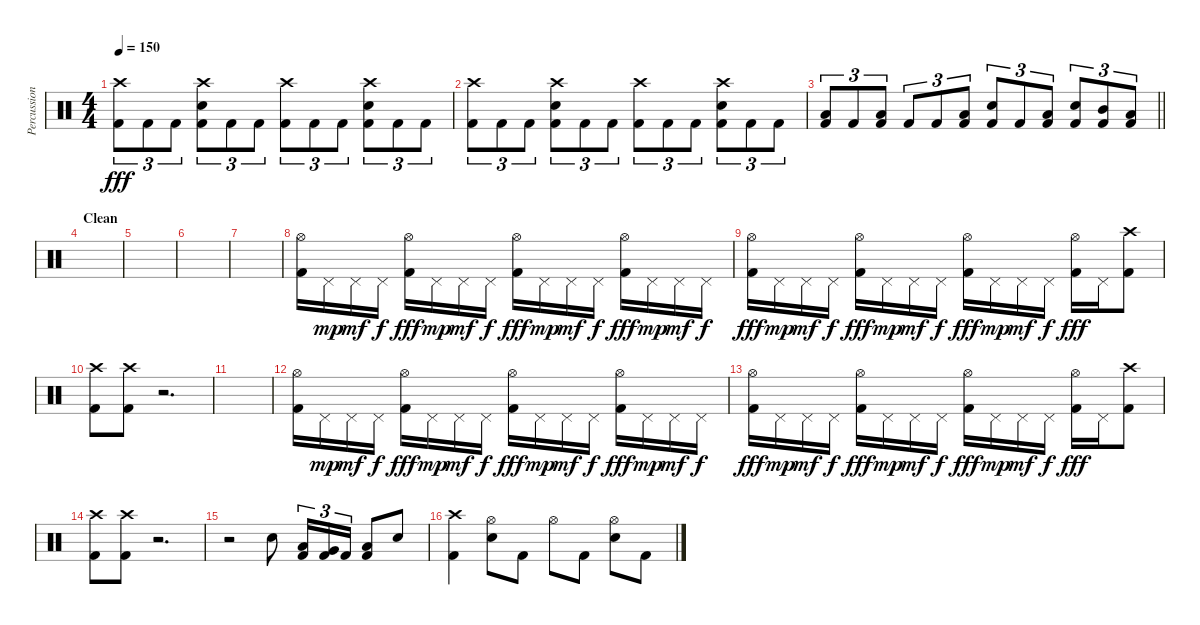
\track ("Percussion" "Percussion") {instrument percussion}
\staff {score}
\articulation defaults
\ts (4 4)
\tempo 150
\clef neutral
\ks c
("Crash high (hit)" "Kick (hit) 2").8{tu (3 2) dy fff} "Kick (hit) 2".8{tu (3 2)} "Kick (hit) 2".8{tu (3 2)} ("Crash high (hit)" "Snare (hit) 2" "Kick (hit) 2").8{tu (3 2)} "Kick (hit) 2".8{tu (3 2)} "Kick (hit) 2".8{tu (3 2)} ("Crash high (hit)" "Kick (hit) 2").8{tu (3 2)} "Kick (hit) 2".8{tu (3 2)} "Kick (hit) 2".8{tu (3 2)} ("Crash high (hit)" "Snare (hit) 2" "Kick (hit) 2").8{tu (3 2)} "Kick (hit) 2".8{tu (3 2)} "Kick (hit) 2".8{tu (3 2)} |
("Crash high (hit)" "Kick (hit) 2").8{tu (3 2)} "Kick (hit) 2".8{tu (3 2)} "Kick (hit) 2".8{tu (3 2)} ("Crash high (hit)" "Snare (hit) 2" "Kick (hit) 2").8{tu (3 2)} "Kick (hit) 2".8{tu (3 2)} "Kick (hit) 2".8{tu (3 2)} ("Crash high (hit)" "Kick (hit) 2").8{tu (3 2)} "Kick (hit) 2".8{tu (3 2)} "Kick (hit) 2".8{tu (3 2)} ("Crash high (hit)" "Snare (hit) 2" "Kick (hit) 2").8{tu (3 2)} "Kick (hit) 2".8{tu (3 2)} "Kick (hit) 2".8{tu (3 2)} |
\barLineRight lightlight
("Low Floor Tom (hit)" "Kick (hit) 2").8{tu (3 2)} "Kick (hit) 2".8{tu (3 2)} ("Low Floor Tom (hit)" "Kick (hit) 2").8{tu (3 2)} "Kick (hit) 2".8{tu (3 2)} "Kick (hit) 2".8{tu (3 2)} ("Low Floor Tom (hit)" "Kick (hit) 2").8{tu (3 2)} ("Snare (hit) 2" "Kick (hit) 2").8{tu (3 2)} "Kick (hit) 2".8{tu (3 2)} ("Low Floor Tom (hit)" "Kick (hit) 2").8{tu (3 2)} ("Snare (hit) 2" "Kick (hit) 2").8{tu (3 2)} ("Mid Tom (hit)" "Kick (hit) 2").8{tu (3 2)} ("Low Tom (hit)" "Kick (hit) 2").8{tu (3 2)} |
\section ("" "Clean")
|
|
|
|
("Hi-Hat (open)" "Kick (hit) 2").16 "Pedal Hi-Hat (hit)".16{dy mp} "Pedal Hi-Hat (hit)".16{dy mf} "Pedal Hi-Hat (hit)".16{dy f} ("Hi-Hat (open)" "Kick (hit) 2").16{dy fff} "Pedal Hi-Hat (hit)".16{dy mp} "Pedal Hi-Hat (hit)".16{dy mf} "Pedal Hi-Hat (hit)".16{dy f} ("Hi-Hat (open)" "Kick (hit) 2").16{dy fff} "Pedal Hi-Hat (hit)".16{dy mp} "Pedal Hi-Hat (hit)".16{dy mf} "Pedal Hi-Hat (hit)".16{dy f} ("Hi-Hat (open)" "Kick (hit) 2").16{dy fff} "Pedal Hi-Hat (hit)".16{dy mp} "Pedal Hi-Hat (hit)".16{dy mf} "Pedal Hi-Hat (hit)".16{dy f} |
("Hi-Hat (open)" "Kick (hit) 2").16{dy fff} "Pedal Hi-Hat (hit)".16{dy mp} "Pedal Hi-Hat (hit)".16{dy mf} "Pedal Hi-Hat (hit)".16{dy f} ("Hi-Hat (open)" "Kick (hit) 2").16{dy fff} "Pedal Hi-Hat (hit)".16{dy mp} "Pedal Hi-Hat (hit)".16{dy mf} "Pedal Hi-Hat (hit)".16{dy f} ("Hi-Hat (open)" "Kick (hit) 2").16{dy fff} "Pedal Hi-Hat (hit)".16{dy mp} "Pedal Hi-Hat (hit)".16{dy mf} "Pedal Hi-Hat (hit)".16{dy f} ("Hi-Hat (open)" "Kick (hit) 2").16{dy fff} "Pedal Hi-Hat (hit)".16 ("Crash high (hit)" "Kick (hit) 2").8 |
("Crash high (hit)" "Kick (hit) 2").8 ("Crash high (hit)" "Kick (hit) 2").8 r.2{d} |
|
("Hi-Hat (open)" "Kick (hit) 2").16 "Pedal Hi-Hat (hit)".16{dy mp} "Pedal Hi-Hat (hit)".16{dy mf} "Pedal Hi-Hat (hit)".16{dy f} ("Hi-Hat (open)" "Kick (hit) 2").16{dy fff} "Pedal Hi-Hat (hit)".16{dy mp} "Pedal Hi-Hat (hit)".16{dy mf} "Pedal Hi-Hat (hit)".16{dy f} ("Hi-Hat (open)" "Kick (hit) 2").16{dy fff} "Pedal Hi-Hat (hit)".16{dy mp} "Pedal Hi-Hat (hit)".16{dy mf} "Pedal Hi-Hat (hit)".16{dy f} ("Hi-Hat (open)" "Kick (hit) 2").16{dy fff} "Pedal Hi-Hat (hit)".16{dy mp} "Pedal Hi-Hat (hit)".16{dy mf} "Pedal Hi-Hat (hit)".16{dy f} |
("Hi-Hat (open)" "Kick (hit) 2").16{dy fff} "Pedal Hi-Hat (hit)".16{dy mp} "Pedal Hi-Hat (hit)".16{dy mf} "Pedal Hi-Hat (hit)".16{dy f} ("Hi-Hat (open)" "Kick (hit) 2").16{dy fff} "Pedal Hi-Hat (hit)".16{dy mp} "Pedal Hi-Hat (hit)".16{dy mf} "Pedal Hi-Hat (hit)".16{dy f} ("Hi-Hat (open)" "Kick (hit) 2").16{dy fff} "Pedal Hi-Hat (hit)".16{dy mp} "Pedal Hi-Hat (hit)".16{dy mf} "Pedal Hi-Hat (hit)".16{dy f} ("Hi-Hat (open)" "Kick (hit) 2").16{dy fff} "Pedal Hi-Hat (hit)".16 ("Crash high (hit)" "Kick (hit) 2").8 |
("Crash high (hit)" "Kick (hit) 2").8 ("Crash high (hit)" "Kick (hit) 2").8 r.2{d} |
r.2 "Snare (hit) 2".8 ("Low Tom (hit)" "Kick (hit) 2").16{tu (3 2)} ("Very Low Tom (hit)" "Kick (hit) 2").16{tu (3 2)} "Kick (hit) 2".16{tu (3 2)} ("Low Floor Tom (hit)" "Kick (hit) 2").8 "Snare (hit) 2".8 |
("Crash high (hit)" "Kick (hit) 2").4 ("Snare (hit) 2" "Hi-Hat (open)").8 "Kick (hit) 2".8 "Hi-Hat (open)".8 "Kick (hit) 2".8 ("Snare (hit) 2" "Hi-Hat (open)").8 "Kick (hit) 2".8
